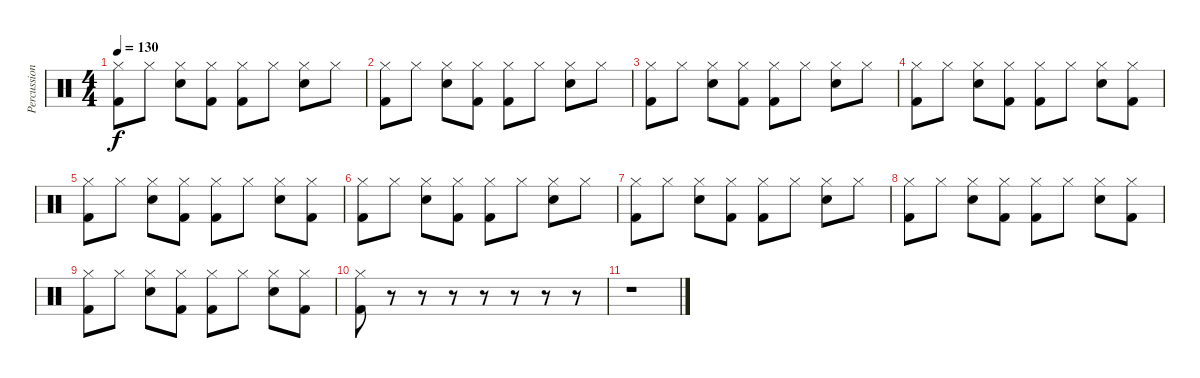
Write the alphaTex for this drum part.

\track ("Percussion" "Percussion") {instrument percussion}
\staff {score}
\articulation defaults
\ts (4 4)
\tempo 130
\clef neutral
\ks c
("Hi-Hat (closed)" "Kick (hit) 2").8{dy f} "Hi-Hat (closed)".8 ("Hi-Hat (closed)" "Snare (hit) 2").8 ("Hi-Hat (closed)" "Kick (hit) 2").8 ("Hi-Hat (closed)" "Kick (hit) 2").8 "Hi-Hat (closed)".8 ("Hi-Hat (closed)" "Snare (hit) 2").8 "Hi-Hat (closed)".8 |
("Hi-Hat (closed)" "Kick (hit) 2").8 "Hi-Hat (closed)".8 ("Hi-Hat (closed)" "Snare (hit) 2").8 ("Hi-Hat (closed)" "Kick (hit) 2").8 ("Hi-Hat (closed)" "Kick (hit) 2").8 "Hi-Hat (closed)".8 ("Hi-Hat (closed)" "Snare (hit) 2").8 "Hi-Hat (closed)".8 |
("Hi-Hat (closed)" "Kick (hit) 2").8 "Hi-Hat (closed)".8 ("Hi-Hat (closed)" "Snare (hit) 2").8 ("Hi-Hat (closed)" "Kick (hit) 2").8 ("Hi-Hat (closed)" "Kick (hit) 2").8 "Hi-Hat (closed)".8 ("Hi-Hat (closed)" "Snare (hit) 2").8 "Hi-Hat (closed)".8 |
("Hi-Hat (closed)" "Kick (hit) 2").8 "Hi-Hat (closed)".8 ("Hi-Hat (closed)" "Snare (hit) 2").8 ("Hi-Hat (closed)" "Kick (hit) 2").8 ("Hi-Hat (closed)" "Kick (hit) 2").8 "Hi-Hat (closed)".8 ("Hi-Hat (closed)" "Snare (hit) 2").8 ("Hi-Hat (closed)" "Kick (hit) 2").8 |
("Hi-Hat (closed)" "Kick (hit) 2").8 "Hi-Hat (closed)".8 ("Hi-Hat (closed)" "Snare (hit) 2").8 ("Hi-Hat (closed)" "Kick (hit) 2").8 ("Hi-Hat (closed)" "Kick (hit) 2").8 "Hi-Hat (closed)".8 ("Hi-Hat (closed)" "Snare (hit) 2").8 ("Hi-Hat (closed)" "Kick (hit) 2").8 |
("Hi-Hat (closed)" "Kick (hit) 2").8 "Hi-Hat (closed)".8 ("Hi-Hat (closed)" "Snare (hit) 2").8 ("Hi-Hat (closed)" "Kick (hit) 2").8 ("Hi-Hat (closed)" "Kick (hit) 2").8 "Hi-Hat (closed)".8 ("Hi-Hat (closed)" "Snare (hit) 2").8 "Hi-Hat (closed)".8 |
("Hi-Hat (closed)" "Kick (hit) 2").8 "Hi-Hat (closed)".8 ("Hi-Hat (closed)" "Snare (hit) 2").8 ("Hi-Hat (closed)" "Kick (hit) 2").8 ("Hi-Hat (closed)" "Kick (hit) 2").8 "Hi-Hat (closed)".8 ("Hi-Hat (closed)" "Snare (hit) 2").8 "Hi-Hat (closed)".8 |
("Hi-Hat (closed)" "Kick (hit) 2").8 "Hi-Hat (closed)".8 ("Hi-Hat (closed)" "Snare (hit) 2").8 ("Hi-Hat (closed)" "Kick (hit) 2").8 ("Hi-Hat (closed)" "Kick (hit) 2").8 "Hi-Hat (closed)".8 ("Hi-Hat (closed)" "Snare (hit) 2").8 ("Hi-Hat (closed)" "Kick (hit) 2").8 |
("Hi-Hat (closed)" "Kick (hit) 2").8 "Hi-Hat (closed)".8 ("Hi-Hat (closed)" "Snare (hit) 2").8 ("Hi-Hat (closed)" "Kick (hit) 2").8 ("Hi-Hat (closed)" "Kick (hit) 2").8 "Hi-Hat (closed)".8 ("Hi-Hat (closed)" "Snare (hit) 2").8 ("Hi-Hat (closed)" "Kick (hit) 2").8 |
("Hi-Hat (closed)" "Kick (hit) 2").8 r.8 r.8 r.8 r.8 r.8 r.8 r.8 |
r.1
